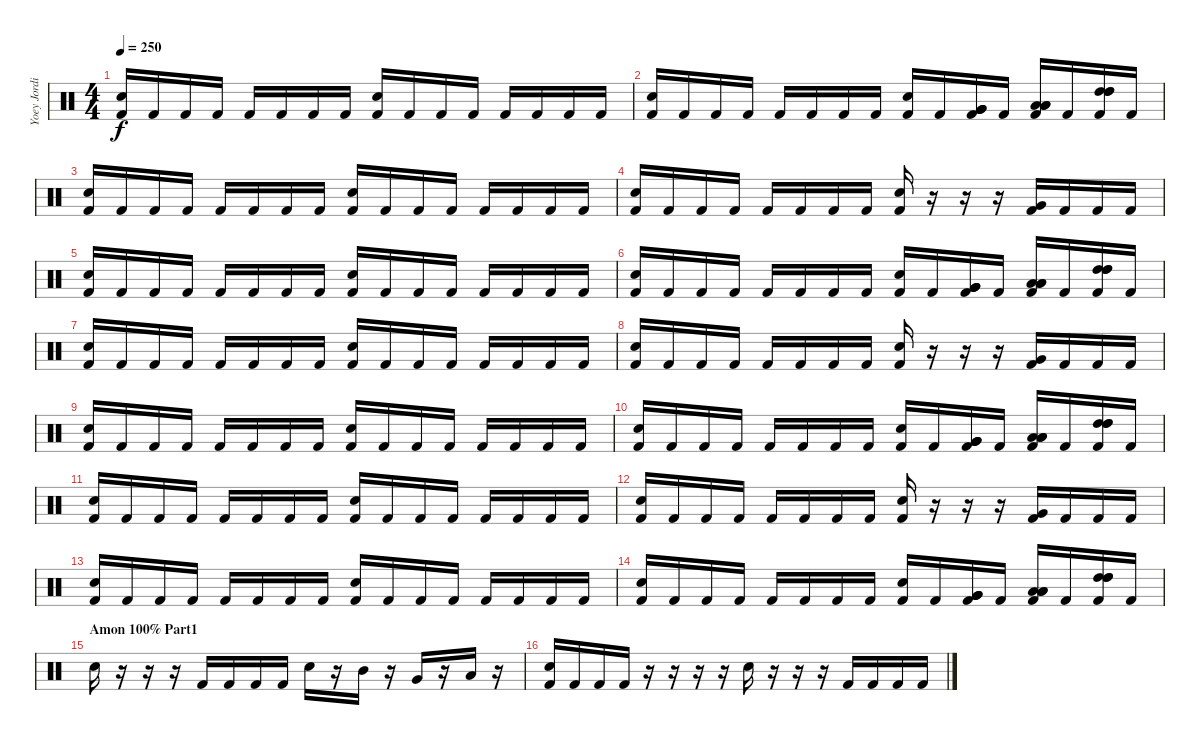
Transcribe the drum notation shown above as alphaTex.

\track ("Yoey Jordison" "Yoey Jordi") {instrument percussion}
\staff {score}
\articulation defaults
\ts (4 4)
\tempo 250
\clef neutral
\ks c
("Kick (hit) 2" "Electric Snare (hit)").16{dy f} "Kick (hit) 2".16 "Kick (hit) 2".16 "Kick (hit) 2".16 "Kick (hit) 2".16 "Kick (hit) 2".16 "Kick (hit) 2".16 "Kick (hit) 2".16 ("Kick (hit) 2" "Snare (hit) 2").16 "Kick (hit) 2".16 "Kick (hit) 2".16 "Kick (hit) 2".16 "Kick (hit) 2".16 "Kick (hit) 2".16 "Kick (hit) 2".16 "Kick (hit) 2".16 |
("Kick (hit) 2" "Electric Snare (hit)").16 "Kick (hit) 2".16 "Kick (hit) 2".16 "Kick (hit) 2".16 "Kick (hit) 2".16 "Kick (hit) 2".16 "Kick (hit) 2".16 "Kick (hit) 2".16 ("Kick (hit) 2" "Electric Snare (hit)").16 "Kick (hit) 2".16 ("Very Low Tom (hit)" "Kick (hit) 2" "Very Low Tom (hit)" "Very Low Tom (hit)").16 "Kick (hit) 2".16 ("Low Floor Tom (hit)" "Kick (hit) 2" "Low Floor Tom (hit)" "Low Floor Tom (hit)").16 "Kick (hit) 2".16 ("High Tom (hit)" "Kick (hit) 2" "High Tom (hit)" "High Tom (hit)").16 "Kick (hit) 2".16 |
("Kick (hit) 2" "Electric Snare (hit)").16 "Kick (hit) 2".16 "Kick (hit) 2".16 "Kick (hit) 2".16 "Kick (hit) 2".16 "Kick (hit) 2".16 "Kick (hit) 2".16 "Kick (hit) 2".16 ("Kick (hit) 2" "Snare (hit) 2").16 "Kick (hit) 2".16 "Kick (hit) 2".16 "Kick (hit) 2".16 "Kick (hit) 2".16 "Kick (hit) 2".16 "Kick (hit) 2".16 "Kick (hit) 2".16 |
("Kick (hit) 2" "Electric Snare (hit)").16 "Kick (hit) 2".16 "Kick (hit) 2".16 "Kick (hit) 2".16 "Kick (hit) 2".16 "Kick (hit) 2".16 "Kick (hit) 2".16 "Kick (hit) 2".16 ("Kick (hit) 2" "Snare (hit) 2").16 r.16 r.16 r.16 ("Kick (hit) 2" "Very Low Tom (hit)").16 "Kick (hit) 2".16 "Kick (hit) 2".16 "Kick (hit) 2".16 |
("Kick (hit) 2" "Electric Snare (hit)").16 "Kick (hit) 2".16 "Kick (hit) 2".16 "Kick (hit) 2".16 "Kick (hit) 2".16 "Kick (hit) 2".16 "Kick (hit) 2".16 "Kick (hit) 2".16 ("Kick (hit) 2" "Snare (hit) 2").16 "Kick (hit) 2".16 "Kick (hit) 2".16 "Kick (hit) 2".16 "Kick (hit) 2".16 "Kick (hit) 2".16 "Kick (hit) 2".16 "Kick (hit) 2".16 |
("Kick (hit) 2" "Electric Snare (hit)").16 "Kick (hit) 2".16 "Kick (hit) 2".16 "Kick (hit) 2".16 "Kick (hit) 2".16 "Kick (hit) 2".16 "Kick (hit) 2".16 "Kick (hit) 2".16 ("Kick (hit) 2" "Electric Snare (hit)").16 "Kick (hit) 2".16 ("Very Low Tom (hit)" "Kick (hit) 2" "Very Low Tom (hit)" "Very Low Tom (hit)").16 "Kick (hit) 2".16 ("Low Floor Tom (hit)" "Kick (hit) 2" "Low Floor Tom (hit)" "Low Floor Tom (hit)").16 "Kick (hit) 2".16 ("High Tom (hit)" "Kick (hit) 2" "High Tom (hit)" "High Tom (hit)").16 "Kick (hit) 2".16 |
("Kick (hit) 2" "Electric Snare (hit)").16 "Kick (hit) 2".16 "Kick (hit) 2".16 "Kick (hit) 2".16 "Kick (hit) 2".16 "Kick (hit) 2".16 "Kick (hit) 2".16 "Kick (hit) 2".16 ("Kick (hit) 2" "Snare (hit) 2").16 "Kick (hit) 2".16 "Kick (hit) 2".16 "Kick (hit) 2".16 "Kick (hit) 2".16 "Kick (hit) 2".16 "Kick (hit) 2".16 "Kick (hit) 2".16 |
("Kick (hit) 2" "Electric Snare (hit)").16 "Kick (hit) 2".16 "Kick (hit) 2".16 "Kick (hit) 2".16 "Kick (hit) 2".16 "Kick (hit) 2".16 "Kick (hit) 2".16 "Kick (hit) 2".16 ("Kick (hit) 2" "Snare (hit) 2").16 r.16 r.16 r.16 ("Kick (hit) 2" "Very Low Tom (hit)").16 "Kick (hit) 2".16 "Kick (hit) 2".16 "Kick (hit) 2".16 |
("Kick (hit) 2" "Electric Snare (hit)").16 "Kick (hit) 2".16 "Kick (hit) 2".16 "Kick (hit) 2".16 "Kick (hit) 2".16 "Kick (hit) 2".16 "Kick (hit) 2".16 "Kick (hit) 2".16 ("Kick (hit) 2" "Snare (hit) 2").16 "Kick (hit) 2".16 "Kick (hit) 2".16 "Kick (hit) 2".16 "Kick (hit) 2".16 "Kick (hit) 2".16 "Kick (hit) 2".16 "Kick (hit) 2".16 |
("Kick (hit) 2" "Electric Snare (hit)").16 "Kick (hit) 2".16 "Kick (hit) 2".16 "Kick (hit) 2".16 "Kick (hit) 2".16 "Kick (hit) 2".16 "Kick (hit) 2".16 "Kick (hit) 2".16 ("Kick (hit) 2" "Electric Snare (hit)").16 "Kick (hit) 2".16 ("Very Low Tom (hit)" "Kick (hit) 2" "Very Low Tom (hit)" "Very Low Tom (hit)").16 "Kick (hit) 2".16 ("Low Floor Tom (hit)" "Kick (hit) 2" "Low Floor Tom (hit)" "Low Floor Tom (hit)").16 "Kick (hit) 2".16 ("High Tom (hit)" "Kick (hit) 2" "High Tom (hit)" "High Tom (hit)").16 "Kick (hit) 2".16 |
("Kick (hit) 2" "Electric Snare (hit)").16 "Kick (hit) 2".16 "Kick (hit) 2".16 "Kick (hit) 2".16 "Kick (hit) 2".16 "Kick (hit) 2".16 "Kick (hit) 2".16 "Kick (hit) 2".16 ("Kick (hit) 2" "Snare (hit) 2").16 "Kick (hit) 2".16 "Kick (hit) 2".16 "Kick (hit) 2".16 "Kick (hit) 2".16 "Kick (hit) 2".16 "Kick (hit) 2".16 "Kick (hit) 2".16 |
("Kick (hit) 2" "Electric Snare (hit)").16 "Kick (hit) 2".16 "Kick (hit) 2".16 "Kick (hit) 2".16 "Kick (hit) 2".16 "Kick (hit) 2".16 "Kick (hit) 2".16 "Kick (hit) 2".16 ("Kick (hit) 2" "Snare (hit) 2").16 r.16 r.16 r.16 ("Kick (hit) 2" "Very Low Tom (hit)").16 "Kick (hit) 2".16 "Kick (hit) 2".16 "Kick (hit) 2".16 |
("Kick (hit) 2" "Electric Snare (hit)").16 "Kick (hit) 2".16 "Kick (hit) 2".16 "Kick (hit) 2".16 "Kick (hit) 2".16 "Kick (hit) 2".16 "Kick (hit) 2".16 "Kick (hit) 2".16 ("Kick (hit) 2" "Snare (hit) 2").16 "Kick (hit) 2".16 "Kick (hit) 2".16 "Kick (hit) 2".16 "Kick (hit) 2".16 "Kick (hit) 2".16 "Kick (hit) 2".16 "Kick (hit) 2".16 |
("Kick (hit) 2" "Electric Snare (hit)").16 "Kick (hit) 2".16 "Kick (hit) 2".16 "Kick (hit) 2".16 "Kick (hit) 2".16 "Kick (hit) 2".16 "Kick (hit) 2".16 "Kick (hit) 2".16 ("Kick (hit) 2" "Electric Snare (hit)").16 "Kick (hit) 2".16 ("Very Low Tom (hit)" "Kick (hit) 2" "Very Low Tom (hit)" "Very Low Tom (hit)").16 "Kick (hit) 2".16 ("Low Floor Tom (hit)" "Kick (hit) 2" "Low Floor Tom (hit)" "Low Floor Tom (hit)").16 "Kick (hit) 2".16 ("High Tom (hit)" "Kick (hit) 2" "High Tom (hit)" "High Tom (hit)").16 "Kick (hit) 2".16 |
\section ("" "Amon 100% Part1")
"Snare (hit) 2".16 r.16 r.16 r.16 "Kick (hit) 2".16 "Kick (hit) 2".16 "Kick (hit) 2".16 "Kick (hit) 2".16 "Electric Snare (hit)".16 r.16 "Mid Tom (hit)".16 r.16 "Very Low Tom (hit)".16 r.16 "Low Floor Tom (hit)".16 r.16 |
("Kick (hit) 2" "Snare (hit) 2").16 "Kick (hit) 2".16 "Kick (hit) 2".16 "Kick (hit) 2".16 r.16 r.16 r.16 r.16 "Electric Snare (hit)".16 r.16 r.16 r.16 "Kick (hit) 2".16 "Kick (hit) 2".16 "Kick (hit) 2".16 "Kick (hit) 2".16
